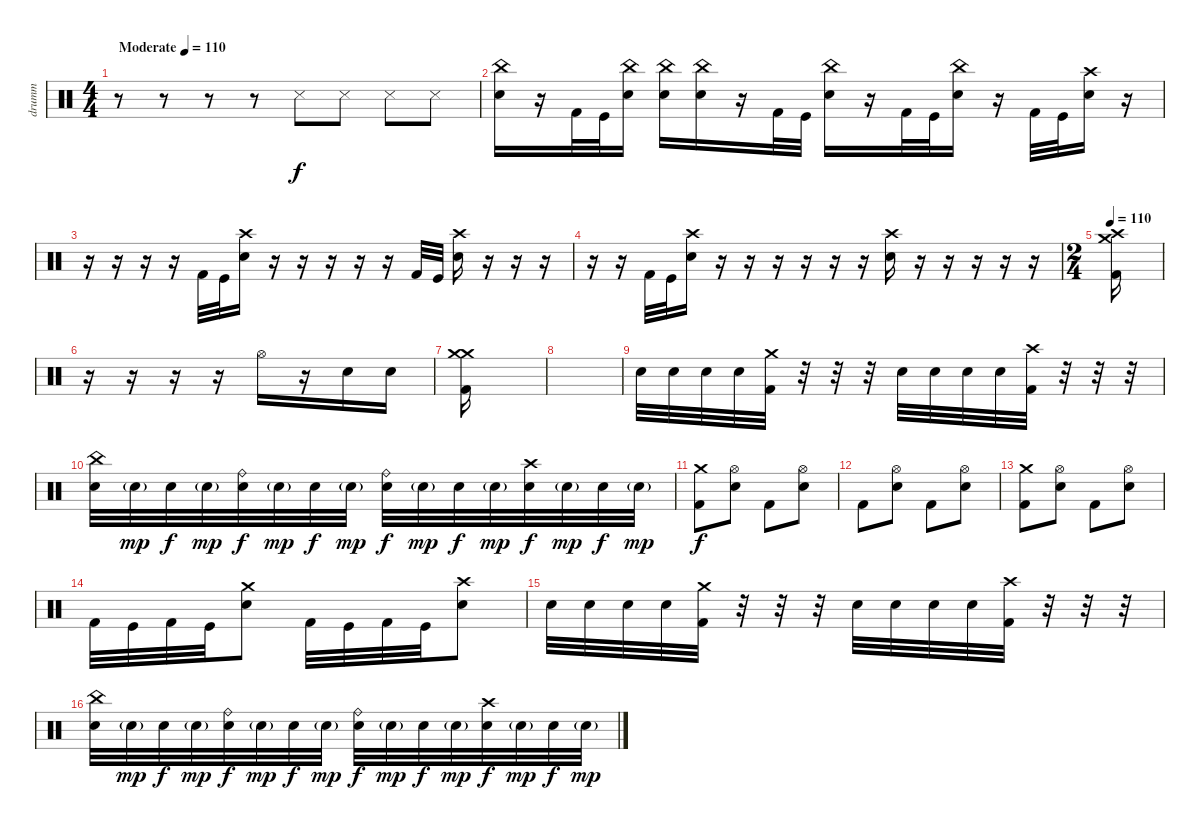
\track ("drumm" "drumm") {instrument percussion}
\staff
\articulation defaults
\ts (4 4)
\tempo (110 "Moderate")
\tempo 95
\tempo (110 "Moderate")
\clef neutral
\ks c
r.8{dy f} r.8 r.8 r.8 "Snare (side stick) 3".8 "Snare (side stick) 3".8 "Snare (side stick) 3".8 "Snare (side stick) 3".8 |
("Electric Snare (hit)" "China (hit)").16 r.16 "Kick (hit) 2".32 "Kick (hit)".32 ("Electric Snare (hit)" "China (hit)").16 ("Electric Snare (hit)" "China (hit)").16 ("Electric Snare (hit)" "China (hit)").16 r.16 "Kick (hit) 2".32 "Kick (hit)".32 ("Electric Snare (hit)" "China (hit)").16 r.16 "Kick (hit) 2".32 "Kick (hit)".32 ("Electric Snare (hit)" "China (hit)").16 r.16 "Kick (hit) 2".32 "Kick (hit)".32 ("Electric Snare (hit)" "Crash high (hit)").16 r.16 |
r.16 r.16 r.16 r.16 "Kick (hit) 2".32 "Kick (hit)".32 ("Electric Snare (hit)" "Crash high (hit)").16 r.16 r.16 r.16 r.16 r.16 "Kick (hit) 2".32 "Kick (hit)".32 ("Electric Snare (hit)" "Crash high (hit)").16 r.16 r.16 r.16 |
r.16 r.16 "Kick (hit) 2".32 "Kick (hit)".32 ("Electric Snare (hit)" "Crash high (hit)").16 r.16 r.16 r.16 r.16 r.16 r.16 ("Electric Snare (hit)" "Crash high (hit)").16 r.16 r.16 r.16 r.16 r.16 |
\ts (2 4)
\tempo 110
("Crash medium (hit)" "Crash high (hit)" "Kick (hit) 2").16 |
r.16 r.16 r.16 r.16 "Hi-Hat (open)".16 r.16 "Electric Snare (hit)".16 "Electric Snare (hit)".16 |
("Crash medium (hit)" "Kick (hit) 2" "Crash medium (hit)").16 |
|
"Electric Snare (hit)".32 "Electric Snare (hit)".32 "Electric Snare (hit)".32 "Electric Snare (hit)".32 ("Kick (hit) 2" "Crash medium (hit)").32 r.32 r.32 r.32 "Electric Snare (hit)".32 "Electric Snare (hit)".32 "Electric Snare (hit)".32 "Electric Snare (hit)".32 ("Kick (hit) 2" "Crash high (hit)").32 r.32 r.32 r.32 |
("Electric Snare (hit)" "China (hit)").32 "Electric Snare (hit)"{g}.32{dy mp} "Electric Snare (hit)".32{dy f} "Electric Snare (hit)"{g}.32{dy mp} ("Electric Snare (hit)" "Ride (bell)").32{dy f} "Electric Snare (hit)"{g}.32{dy mp} "Electric Snare (hit)".32{dy f} "Electric Snare (hit)"{g}.32{dy mp} ("Electric Snare (hit)" "Ride (bell)").32{dy f} "Electric Snare (hit)"{g}.32{dy mp} "Electric Snare (hit)".32{dy f} "Electric Snare (hit)"{g}.32{dy mp} ("Electric Snare (hit)" "Crash high (hit)").32{dy f} "Electric Snare (hit)"{g}.32{dy mp} "Electric Snare (hit)".32{dy f} "Electric Snare (hit)"{g}.32{dy mp} |
("Kick (hit) 2" "Crash medium (hit)").8{dy f} ("Electric Snare (hit)" "Hi-Hat (open)").8 "Kick (hit) 2".8 ("Electric Snare (hit)" "Hi-Hat (open)").8 |
"Kick (hit) 2".8 ("Electric Snare (hit)" "Hi-Hat (open)").8 "Kick (hit) 2".8 ("Electric Snare (hit)" "Hi-Hat (open)").8 |
("Kick (hit) 2" "Crash medium (hit)").8 ("Electric Snare (hit)" "Hi-Hat (open)").8 "Kick (hit) 2".8 ("Electric Snare (hit)" "Hi-Hat (open)").8 |
"Kick (hit) 2".32 "Kick (hit)".32 "Kick (hit) 2".32 "Kick (hit)".32 ("Electric Snare (hit)" "Crash medium (hit)").8 "Kick (hit) 2".32 "Kick (hit)".32 "Kick (hit) 2".32 "Kick (hit)".32 ("Electric Snare (hit)" "Crash high (hit)").8 |
"Electric Snare (hit)".32 "Electric Snare (hit)".32 "Electric Snare (hit)".32 "Electric Snare (hit)".32 ("Kick (hit) 2" "Crash medium (hit)").32 r.32 r.32 r.32 "Electric Snare (hit)".32 "Electric Snare (hit)".32 "Electric Snare (hit)".32 "Electric Snare (hit)".32 ("Kick (hit) 2" "Crash high (hit)").32 r.32 r.32 r.32 |
("Electric Snare (hit)" "China (hit)").32 "Electric Snare (hit)"{g}.32{dy mp} "Electric Snare (hit)".32{dy f} "Electric Snare (hit)"{g}.32{dy mp} ("Electric Snare (hit)" "Ride (bell)").32{dy f} "Electric Snare (hit)"{g}.32{dy mp} "Electric Snare (hit)".32{dy f} "Electric Snare (hit)"{g}.32{dy mp} ("Electric Snare (hit)" "Ride (bell)").32{dy f} "Electric Snare (hit)"{g}.32{dy mp} "Electric Snare (hit)".32{dy f} "Electric Snare (hit)"{g}.32{dy mp} ("Electric Snare (hit)" "Crash high (hit)").32{dy f} "Electric Snare (hit)"{g}.32{dy mp} "Electric Snare (hit)".32{dy f} "Electric Snare (hit)"{g}.32{dy mp}
